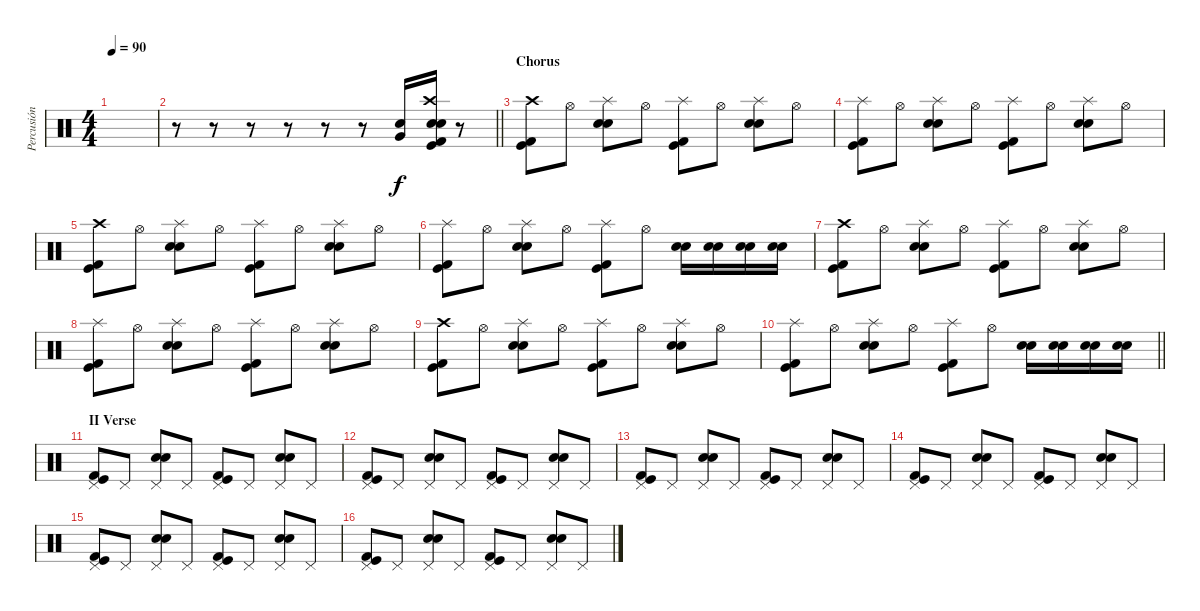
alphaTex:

\track ("Percusión" "Percusión") {instrument percussion}
\staff {score}
\articulation defaults
\ts (4 4)
\tempo 90
\clef neutral
\ks c
|
\barLineRight lightlight
r.8 r.8 r.8 r.8 r.8 r.8 ("Very Low Tom (hit)" "Snare (hit) 2").16 ("Crash high (hit)" "Electric Snare (hit)" "Snare (hit) 2" "Kick (hit) 2" "Kick (hit)").16 r.8 |
\section ("" "Chorus")
("Crash high (hit)" "Kick (hit) 2" "Kick (hit)").8 "Hi-Hat (open)".8 ("Splash (hit)" "Electric Snare (hit)" "Snare (hit) 2").8 "Hi-Hat (open)".8 ("Splash (hit)" "Kick (hit) 2" "Kick (hit)").8 "Hi-Hat (open)".8 ("Splash (hit)" "Electric Snare (hit)" "Snare (hit) 2").8 "Hi-Hat (open)".8 |
("Splash (hit)" "Kick (hit) 2" "Kick (hit)").8 "Hi-Hat (open)".8 ("Splash (hit)" "Electric Snare (hit)" "Snare (hit) 2").8 "Hi-Hat (open)".8 ("Splash (hit)" "Kick (hit) 2" "Kick (hit)").8 "Hi-Hat (open)".8 ("Splash (hit)" "Electric Snare (hit)" "Snare (hit) 2").8 "Hi-Hat (open)".8 |
("Crash high (hit)" "Kick (hit) 2" "Kick (hit)").8 "Hi-Hat (open)".8 ("Splash (hit)" "Electric Snare (hit)" "Snare (hit) 2").8 "Hi-Hat (open)".8 ("Splash (hit)" "Kick (hit) 2" "Kick (hit)").8 "Hi-Hat (open)".8 ("Splash (hit)" "Electric Snare (hit)" "Snare (hit) 2").8 "Hi-Hat (open)".8 |
("Splash (hit)" "Kick (hit) 2" "Kick (hit)").8 "Hi-Hat (open)".8 ("Splash (hit)" "Electric Snare (hit)" "Snare (hit) 2").8 "Hi-Hat (open)".8 ("Splash (hit)" "Kick (hit) 2" "Kick (hit)").8 "Hi-Hat (open)".8 ("Electric Snare (hit)" "Snare (hit) 2").16 ("Electric Snare (hit)" "Snare (hit) 2").16 ("Electric Snare (hit)" "Snare (hit) 2").16 ("Electric Snare (hit)" "Snare (hit) 2").16 |
("Crash high (hit)" "Kick (hit) 2" "Kick (hit)").8 "Hi-Hat (open)".8 ("Splash (hit)" "Electric Snare (hit)" "Snare (hit) 2").8 "Hi-Hat (open)".8 ("Splash (hit)" "Kick (hit) 2" "Kick (hit)").8 "Hi-Hat (open)".8 ("Splash (hit)" "Electric Snare (hit)" "Snare (hit) 2").8 "Hi-Hat (open)".8 |
("Splash (hit)" "Kick (hit) 2" "Kick (hit)").8 "Hi-Hat (open)".8 ("Splash (hit)" "Electric Snare (hit)" "Snare (hit) 2").8 "Hi-Hat (open)".8 ("Splash (hit)" "Kick (hit) 2" "Kick (hit)").8 "Hi-Hat (open)".8 ("Splash (hit)" "Electric Snare (hit)" "Snare (hit) 2").8 "Hi-Hat (open)".8 |
("Crash high (hit)" "Kick (hit) 2" "Kick (hit)").8 "Hi-Hat (open)".8 ("Splash (hit)" "Electric Snare (hit)" "Snare (hit) 2").8 "Hi-Hat (open)".8 ("Splash (hit)" "Kick (hit) 2" "Kick (hit)").8 "Hi-Hat (open)".8 ("Splash (hit)" "Electric Snare (hit)" "Snare (hit) 2").8 "Hi-Hat (open)".8 |
\barLineRight lightlight
("Splash (hit)" "Kick (hit) 2" "Kick (hit)").8 "Hi-Hat (open)".8 ("Splash (hit)" "Electric Snare (hit)" "Snare (hit) 2").8 "Hi-Hat (open)".8 ("Splash (hit)" "Kick (hit) 2" "Kick (hit)").8 "Hi-Hat (open)".8 ("Electric Snare (hit)" "Snare (hit) 2").16 ("Electric Snare (hit)" "Snare (hit) 2").16 ("Electric Snare (hit)" "Snare (hit) 2").16 ("Electric Snare (hit)" "Snare (hit) 2").16 |
\section ("" "II Verse")
("Pedal Hi-Hat (hit)" "Kick (hit) 2" "Kick (hit)").8 "Pedal Hi-Hat (hit)".8 ("Pedal Hi-Hat (hit)" "Electric Snare (hit)" "Snare (hit) 2").8 "Pedal Hi-Hat (hit)".8 ("Pedal Hi-Hat (hit)" "Kick (hit) 2" "Kick (hit)").8 "Pedal Hi-Hat (hit)".8 ("Pedal Hi-Hat (hit)" "Electric Snare (hit)" "Snare (hit) 2").8 "Pedal Hi-Hat (hit)".8 |
("Pedal Hi-Hat (hit)" "Kick (hit) 2" "Kick (hit)").8 "Pedal Hi-Hat (hit)".8 ("Pedal Hi-Hat (hit)" "Electric Snare (hit)" "Snare (hit) 2").8 "Pedal Hi-Hat (hit)".8 ("Pedal Hi-Hat (hit)" "Kick (hit) 2" "Kick (hit)").8 "Pedal Hi-Hat (hit)".8 ("Pedal Hi-Hat (hit)" "Electric Snare (hit)" "Snare (hit) 2").8 "Pedal Hi-Hat (hit)".8 |
("Pedal Hi-Hat (hit)" "Kick (hit) 2" "Kick (hit)").8 "Pedal Hi-Hat (hit)".8 ("Pedal Hi-Hat (hit)" "Electric Snare (hit)" "Snare (hit) 2").8 "Pedal Hi-Hat (hit)".8 ("Pedal Hi-Hat (hit)" "Kick (hit) 2" "Kick (hit)").8 "Pedal Hi-Hat (hit)".8 ("Pedal Hi-Hat (hit)" "Electric Snare (hit)" "Snare (hit) 2").8 "Pedal Hi-Hat (hit)".8 |
("Pedal Hi-Hat (hit)" "Kick (hit) 2" "Kick (hit)").8 "Pedal Hi-Hat (hit)".8 ("Pedal Hi-Hat (hit)" "Electric Snare (hit)" "Snare (hit) 2").8 "Pedal Hi-Hat (hit)".8 ("Pedal Hi-Hat (hit)" "Kick (hit) 2" "Kick (hit)").8 "Pedal Hi-Hat (hit)".8 ("Pedal Hi-Hat (hit)" "Electric Snare (hit)" "Snare (hit) 2").8 "Pedal Hi-Hat (hit)".8 |
("Pedal Hi-Hat (hit)" "Kick (hit) 2" "Kick (hit)").8 "Pedal Hi-Hat (hit)".8 ("Pedal Hi-Hat (hit)" "Electric Snare (hit)" "Snare (hit) 2").8 "Pedal Hi-Hat (hit)".8 ("Pedal Hi-Hat (hit)" "Kick (hit) 2" "Kick (hit)").8 "Pedal Hi-Hat (hit)".8 ("Pedal Hi-Hat (hit)" "Electric Snare (hit)" "Snare (hit) 2").8 "Pedal Hi-Hat (hit)".8 |
("Pedal Hi-Hat (hit)" "Kick (hit) 2" "Kick (hit)").8 "Pedal Hi-Hat (hit)".8 ("Pedal Hi-Hat (hit)" "Electric Snare (hit)" "Snare (hit) 2").8 "Pedal Hi-Hat (hit)".8 ("Pedal Hi-Hat (hit)" "Kick (hit) 2" "Kick (hit)").8 "Pedal Hi-Hat (hit)".8 ("Pedal Hi-Hat (hit)" "Electric Snare (hit)" "Snare (hit) 2").8 "Pedal Hi-Hat (hit)".8
